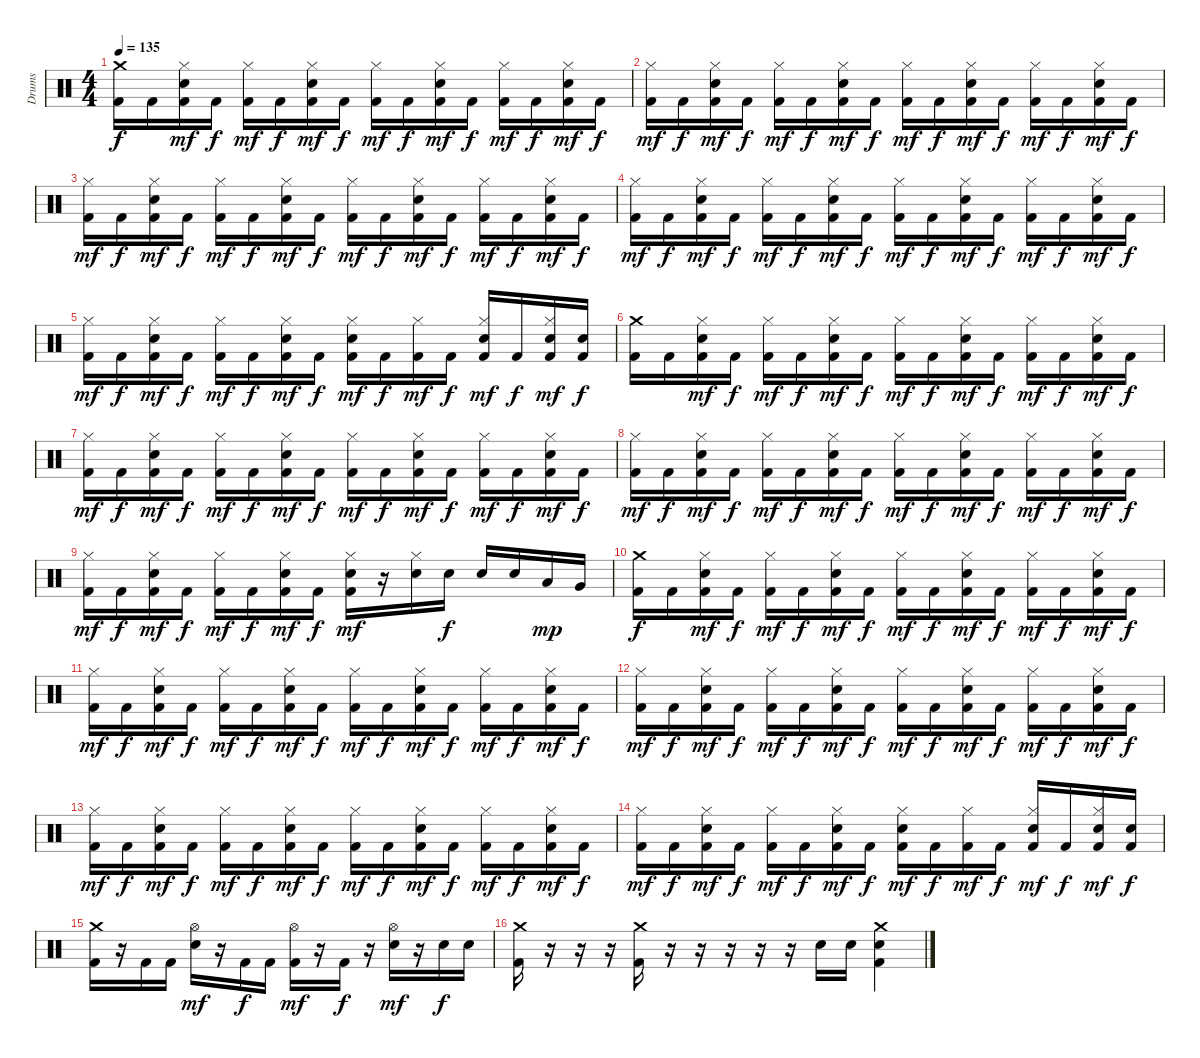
\track ("Drums" "Drums") {instrument percussion}
\staff {score}
\articulation defaults
\ts (4 4)
\tempo 135
\clef neutral
\ks c
("Crash medium (hit)" "Kick (hit) 2").16{dy f} "Kick (hit) 2".16 ("Hi-Hat (closed)" "Electric Snare (hit)" "Kick (hit) 2").16{dy mf} "Kick (hit) 2".16{dy f} ("Hi-Hat (closed)" "Kick (hit) 2").16{dy mf} "Kick (hit) 2".16{dy f} ("Hi-Hat (closed)" "Electric Snare (hit)" "Kick (hit) 2").16{dy mf} "Kick (hit) 2".16{dy f} ("Hi-Hat (closed)" "Kick (hit) 2").16{dy mf} "Kick (hit) 2".16{dy f} ("Hi-Hat (closed)" "Electric Snare (hit)" "Kick (hit) 2").16{dy mf} "Kick (hit) 2".16{dy f} ("Hi-Hat (closed)" "Kick (hit) 2").16{dy mf} "Kick (hit) 2".16{dy f} ("Hi-Hat (closed)" "Electric Snare (hit)" "Kick (hit) 2").16{dy mf} "Kick (hit) 2".16{dy f} |
("Hi-Hat (closed)" "Kick (hit) 2").16{dy mf} "Kick (hit) 2".16{dy f} ("Hi-Hat (closed)" "Electric Snare (hit)" "Kick (hit) 2").16{dy mf} "Kick (hit) 2".16{dy f} ("Hi-Hat (closed)" "Kick (hit) 2").16{dy mf} "Kick (hit) 2".16{dy f} ("Hi-Hat (closed)" "Electric Snare (hit)" "Kick (hit) 2").16{dy mf} "Kick (hit) 2".16{dy f} ("Hi-Hat (closed)" "Kick (hit) 2").16{dy mf} "Kick (hit) 2".16{dy f} ("Hi-Hat (closed)" "Electric Snare (hit)" "Kick (hit) 2").16{dy mf} "Kick (hit) 2".16{dy f} ("Hi-Hat (closed)" "Kick (hit) 2").16{dy mf} "Kick (hit) 2".16{dy f} ("Hi-Hat (closed)" "Electric Snare (hit)" "Kick (hit) 2").16{dy mf} "Kick (hit) 2".16{dy f} |
("Hi-Hat (closed)" "Kick (hit) 2").16{dy mf} "Kick (hit) 2".16{dy f} ("Hi-Hat (closed)" "Electric Snare (hit)" "Kick (hit) 2").16{dy mf} "Kick (hit) 2".16{dy f} ("Hi-Hat (closed)" "Kick (hit) 2").16{dy mf} "Kick (hit) 2".16{dy f} ("Hi-Hat (closed)" "Electric Snare (hit)" "Kick (hit) 2").16{dy mf} "Kick (hit) 2".16{dy f} ("Hi-Hat (closed)" "Kick (hit) 2").16{dy mf} "Kick (hit) 2".16{dy f} ("Hi-Hat (closed)" "Electric Snare (hit)" "Kick (hit) 2").16{dy mf} "Kick (hit) 2".16{dy f} ("Hi-Hat (closed)" "Kick (hit) 2").16{dy mf} "Kick (hit) 2".16{dy f} ("Hi-Hat (closed)" "Electric Snare (hit)" "Kick (hit) 2").16{dy mf} "Kick (hit) 2".16{dy f} |
("Hi-Hat (closed)" "Kick (hit) 2").16{dy mf} "Kick (hit) 2".16{dy f} ("Hi-Hat (closed)" "Electric Snare (hit)" "Kick (hit) 2").16{dy mf} "Kick (hit) 2".16{dy f} ("Hi-Hat (closed)" "Kick (hit) 2").16{dy mf} "Kick (hit) 2".16{dy f} ("Hi-Hat (closed)" "Electric Snare (hit)" "Kick (hit) 2").16{dy mf} "Kick (hit) 2".16{dy f} ("Hi-Hat (closed)" "Kick (hit) 2").16{dy mf} "Kick (hit) 2".16{dy f} ("Hi-Hat (closed)" "Electric Snare (hit)" "Kick (hit) 2").16{dy mf} "Kick (hit) 2".16{dy f} ("Hi-Hat (closed)" "Kick (hit) 2").16{dy mf} "Kick (hit) 2".16{dy f} ("Hi-Hat (closed)" "Electric Snare (hit)" "Kick (hit) 2").16{dy mf} "Kick (hit) 2".16{dy f} |
("Hi-Hat (closed)" "Kick (hit) 2").16{dy mf} "Kick (hit) 2".16{dy f} ("Hi-Hat (closed)" "Electric Snare (hit)" "Kick (hit) 2").16{dy mf} "Kick (hit) 2".16{dy f} ("Hi-Hat (closed)" "Kick (hit) 2").16{dy mf} "Kick (hit) 2".16{dy f} ("Hi-Hat (closed)" "Electric Snare (hit)" "Kick (hit) 2").16{dy mf} "Kick (hit) 2".16{dy f} ("Hi-Hat (closed)" "Electric Snare (hit)" "Kick (hit) 2").16{dy mf} "Kick (hit) 2".16{dy f} ("Hi-Hat (closed)" "Kick (hit) 2").16{dy mf} "Kick (hit) 2".16{dy f} ("Hi-Hat (closed)" "Electric Snare (hit)" "Kick (hit) 2").16{dy mf} "Kick (hit) 2".16{dy f} ("Hi-Hat (closed)" "Electric Snare (hit)" "Kick (hit) 2").16{dy mf} ("Electric Snare (hit)" "Kick (hit) 2").16{dy f} |
("Crash medium (hit)" "Kick (hit) 2").16 "Kick (hit) 2".16 ("Hi-Hat (closed)" "Electric Snare (hit)" "Kick (hit) 2").16{dy mf} "Kick (hit) 2".16{dy f} ("Hi-Hat (closed)" "Kick (hit) 2").16{dy mf} "Kick (hit) 2".16{dy f} ("Hi-Hat (closed)" "Electric Snare (hit)" "Kick (hit) 2").16{dy mf} "Kick (hit) 2".16{dy f} ("Hi-Hat (closed)" "Kick (hit) 2").16{dy mf} "Kick (hit) 2".16{dy f} ("Hi-Hat (closed)" "Electric Snare (hit)" "Kick (hit) 2").16{dy mf} "Kick (hit) 2".16{dy f} ("Hi-Hat (closed)" "Kick (hit) 2").16{dy mf} "Kick (hit) 2".16{dy f} ("Hi-Hat (closed)" "Electric Snare (hit)" "Kick (hit) 2").16{dy mf} "Kick (hit) 2".16{dy f} |
("Hi-Hat (closed)" "Kick (hit) 2").16{dy mf} "Kick (hit) 2".16{dy f} ("Hi-Hat (closed)" "Electric Snare (hit)" "Kick (hit) 2").16{dy mf} "Kick (hit) 2".16{dy f} ("Hi-Hat (closed)" "Kick (hit) 2").16{dy mf} "Kick (hit) 2".16{dy f} ("Hi-Hat (closed)" "Electric Snare (hit)" "Kick (hit) 2").16{dy mf} "Kick (hit) 2".16{dy f} ("Hi-Hat (closed)" "Kick (hit) 2").16{dy mf} "Kick (hit) 2".16{dy f} ("Hi-Hat (closed)" "Electric Snare (hit)" "Kick (hit) 2").16{dy mf} "Kick (hit) 2".16{dy f} ("Hi-Hat (closed)" "Kick (hit) 2").16{dy mf} "Kick (hit) 2".16{dy f} ("Hi-Hat (closed)" "Electric Snare (hit)" "Kick (hit) 2").16{dy mf} "Kick (hit) 2".16{dy f} |
("Hi-Hat (closed)" "Kick (hit) 2").16{dy mf} "Kick (hit) 2".16{dy f} ("Hi-Hat (closed)" "Electric Snare (hit)" "Kick (hit) 2").16{dy mf} "Kick (hit) 2".16{dy f} ("Hi-Hat (closed)" "Kick (hit) 2").16{dy mf} "Kick (hit) 2".16{dy f} ("Hi-Hat (closed)" "Electric Snare (hit)" "Kick (hit) 2").16{dy mf} "Kick (hit) 2".16{dy f} ("Hi-Hat (closed)" "Kick (hit) 2").16{dy mf} "Kick (hit) 2".16{dy f} ("Hi-Hat (closed)" "Electric Snare (hit)" "Kick (hit) 2").16{dy mf} "Kick (hit) 2".16{dy f} ("Hi-Hat (closed)" "Kick (hit) 2").16{dy mf} "Kick (hit) 2".16{dy f} ("Hi-Hat (closed)" "Electric Snare (hit)" "Kick (hit) 2").16{dy mf} "Kick (hit) 2".16{dy f} |
("Hi-Hat (closed)" "Kick (hit) 2").16{dy mf} "Kick (hit) 2".16{dy f} ("Hi-Hat (closed)" "Electric Snare (hit)" "Kick (hit) 2").16{dy mf} "Kick (hit) 2".16{dy f} ("Hi-Hat (closed)" "Kick (hit) 2").16{dy mf} "Kick (hit) 2".16{dy f} ("Hi-Hat (closed)" "Electric Snare (hit)" "Kick (hit) 2").16{dy mf} "Kick (hit) 2".16{dy f} ("Hi-Hat (closed)" "Electric Snare (hit)" "Kick (hit) 2").16{dy mf} r.16 ("Hi-Hat (closed)" "Electric Snare (hit)").16 "Electric Snare (hit)".16{dy f} "Electric Snare (hit)".16 "Electric Snare (hit)".16 "Low Tom (hit)".16{dy mp} "Very Low Tom (hit)".16 |
("Crash medium (hit)" "Kick (hit) 2").16{dy f} "Kick (hit) 2".16 ("Hi-Hat (closed)" "Electric Snare (hit)" "Kick (hit) 2").16{dy mf} "Kick (hit) 2".16{dy f} ("Hi-Hat (closed)" "Kick (hit) 2").16{dy mf} "Kick (hit) 2".16{dy f} ("Hi-Hat (closed)" "Electric Snare (hit)" "Kick (hit) 2").16{dy mf} "Kick (hit) 2".16{dy f} ("Hi-Hat (closed)" "Kick (hit) 2").16{dy mf} "Kick (hit) 2".16{dy f} ("Hi-Hat (closed)" "Electric Snare (hit)" "Kick (hit) 2").16{dy mf} "Kick (hit) 2".16{dy f} ("Hi-Hat (closed)" "Kick (hit) 2").16{dy mf} "Kick (hit) 2".16{dy f} ("Hi-Hat (closed)" "Electric Snare (hit)" "Kick (hit) 2").16{dy mf} "Kick (hit) 2".16{dy f} |
("Hi-Hat (closed)" "Kick (hit) 2").16{dy mf} "Kick (hit) 2".16{dy f} ("Hi-Hat (closed)" "Electric Snare (hit)" "Kick (hit) 2").16{dy mf} "Kick (hit) 2".16{dy f} ("Hi-Hat (closed)" "Kick (hit) 2").16{dy mf} "Kick (hit) 2".16{dy f} ("Hi-Hat (closed)" "Electric Snare (hit)" "Kick (hit) 2").16{dy mf} "Kick (hit) 2".16{dy f} ("Hi-Hat (closed)" "Kick (hit) 2").16{dy mf} "Kick (hit) 2".16{dy f} ("Hi-Hat (closed)" "Electric Snare (hit)" "Kick (hit) 2").16{dy mf} "Kick (hit) 2".16{dy f} ("Hi-Hat (closed)" "Kick (hit) 2").16{dy mf} "Kick (hit) 2".16{dy f} ("Hi-Hat (closed)" "Electric Snare (hit)" "Kick (hit) 2").16{dy mf} "Kick (hit) 2".16{dy f} |
("Hi-Hat (closed)" "Kick (hit) 2").16{dy mf} "Kick (hit) 2".16{dy f} ("Hi-Hat (closed)" "Electric Snare (hit)" "Kick (hit) 2").16{dy mf} "Kick (hit) 2".16{dy f} ("Hi-Hat (closed)" "Kick (hit) 2").16{dy mf} "Kick (hit) 2".16{dy f} ("Hi-Hat (closed)" "Electric Snare (hit)" "Kick (hit) 2").16{dy mf} "Kick (hit) 2".16{dy f} ("Hi-Hat (closed)" "Kick (hit) 2").16{dy mf} "Kick (hit) 2".16{dy f} ("Hi-Hat (closed)" "Electric Snare (hit)" "Kick (hit) 2").16{dy mf} "Kick (hit) 2".16{dy f} ("Hi-Hat (closed)" "Kick (hit) 2").16{dy mf} "Kick (hit) 2".16{dy f} ("Hi-Hat (closed)" "Electric Snare (hit)" "Kick (hit) 2").16{dy mf} "Kick (hit) 2".16{dy f} |
("Hi-Hat (closed)" "Kick (hit) 2").16{dy mf} "Kick (hit) 2".16{dy f} ("Hi-Hat (closed)" "Electric Snare (hit)" "Kick (hit) 2").16{dy mf} "Kick (hit) 2".16{dy f} ("Hi-Hat (closed)" "Kick (hit) 2").16{dy mf} "Kick (hit) 2".16{dy f} ("Hi-Hat (closed)" "Electric Snare (hit)" "Kick (hit) 2").16{dy mf} "Kick (hit) 2".16{dy f} ("Hi-Hat (closed)" "Kick (hit) 2").16{dy mf} "Kick (hit) 2".16{dy f} ("Hi-Hat (closed)" "Electric Snare (hit)" "Kick (hit) 2").16{dy mf} "Kick (hit) 2".16{dy f} ("Hi-Hat (closed)" "Kick (hit) 2").16{dy mf} "Kick (hit) 2".16{dy f} ("Hi-Hat (closed)" "Electric Snare (hit)" "Kick (hit) 2").16{dy mf} "Kick (hit) 2".16{dy f} |
("Hi-Hat (closed)" "Kick (hit) 2").16{dy mf} "Kick (hit) 2".16{dy f} ("Hi-Hat (closed)" "Electric Snare (hit)" "Kick (hit) 2").16{dy mf} "Kick (hit) 2".16{dy f} ("Hi-Hat (closed)" "Kick (hit) 2").16{dy mf} "Kick (hit) 2".16{dy f} ("Hi-Hat (closed)" "Electric Snare (hit)" "Kick (hit) 2").16{dy mf} "Kick (hit) 2".16{dy f} ("Hi-Hat (closed)" "Electric Snare (hit)" "Kick (hit) 2").16{dy mf} "Kick (hit) 2".16{dy f} ("Hi-Hat (closed)" "Kick (hit) 2").16{dy mf} "Kick (hit) 2".16{dy f} ("Hi-Hat (closed)" "Electric Snare (hit)" "Kick (hit) 2").16{dy mf} "Kick (hit) 2".16{dy f} ("Hi-Hat (closed)" "Electric Snare (hit)" "Kick (hit) 2").16{dy mf} ("Electric Snare (hit)" "Kick (hit) 2").16{dy f} |
("Crash medium (hit)" "Kick (hit) 2").16 r.16 "Kick (hit) 2".16 "Kick (hit) 2".16 ("Hi-Hat (open)" "Electric Snare (hit)").16{dy mf} r.16 "Kick (hit) 2".16{dy f} "Kick (hit) 2".16 ("Hi-Hat (open)" "Kick (hit) 2").16{dy mf} r.16 "Kick (hit) 2".16{dy f} r.16 ("Hi-Hat (open)" "Electric Snare (hit)").16{dy mf} r.16 "Electric Snare (hit)".16{dy f} "Electric Snare (hit)".16 |
("Crash medium (hit)" "Kick (hit) 2").16 r.16 r.16 r.16 ("Crash medium (hit)" "Kick (hit) 2").16 r.16 r.16 r.16 r.16 r.16 "Electric Snare (hit)".16 "Electric Snare (hit)".16 ("Crash medium (hit)" "Electric Snare (hit)" "Kick (hit) 2").4
